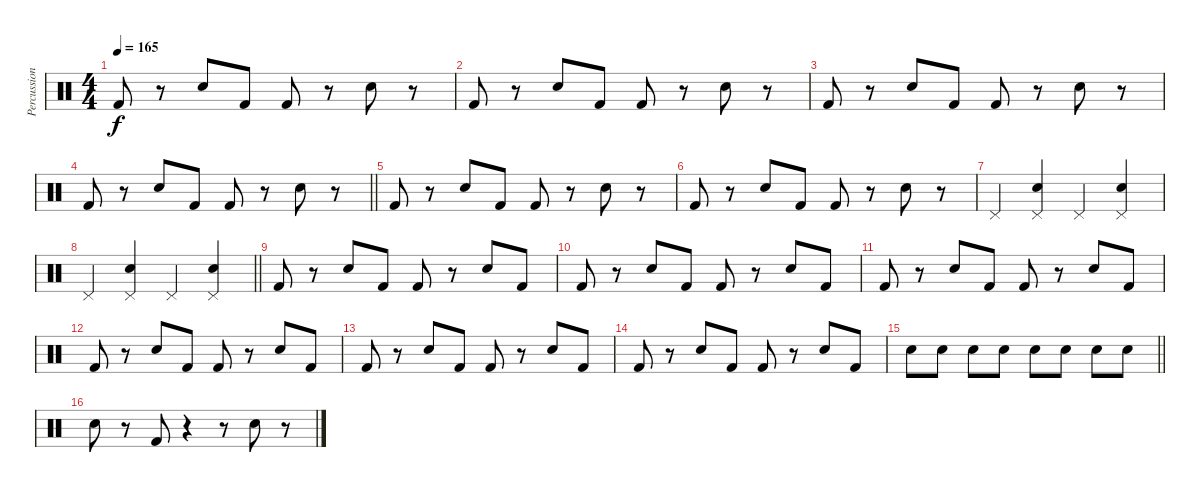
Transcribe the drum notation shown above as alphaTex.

\track ("Percussion" "Percussion") {instrument percussion}
\staff {score}
\articulation defaults
\ts (4 4)
\tempo 165
\clef neutral
\ks c "Kick (hit) 2".8{dy f}
r.8 "Snare (hit) 2".8 "Kick (hit) 2".8 "Kick (hit) 2".8 r.8 "Snare (hit) 2".8 r.8 |
"Kick (hit) 2".8 r.8 "Snare (hit) 2".8 "Kick (hit) 2".8 "Kick (hit) 2".8 r.8 "Snare (hit) 2".8 r.8 |
"Kick (hit) 2".8 r.8 "Snare (hit) 2".8 "Kick (hit) 2".8 "Kick (hit) 2".8 r.8 "Snare (hit) 2".8 r.8 |
\barLineRight lightlight "Kick (hit) 2".8
r.8 "Snare (hit) 2".8 "Kick (hit) 2".8 "Kick (hit) 2".8 r.8 "Snare (hit) 2".8 r.8 |
"Kick (hit) 2".8 r.8 "Snare (hit) 2".8 "Kick (hit) 2".8 "Kick (hit) 2".8 r.8 "Snare (hit) 2".8 r.8 |
"Kick (hit) 2".8 r.8 "Snare (hit) 2".8 "Kick (hit) 2".8 "Kick (hit) 2".8 r.8 "Snare (hit) 2".8 r.8 |
"Pedal Hi-Hat (hit)".4 ("Pedal Hi-Hat (hit)" "Snare (hit) 2").4 "Pedal Hi-Hat (hit)".4 ("Pedal Hi-Hat (hit)" "Snare (hit) 2").4 |
\barLineRight lightlight "Pedal Hi-Hat (hit)".4
("Pedal Hi-Hat (hit)" "Snare (hit) 2").4 "Pedal Hi-Hat (hit)".4 ("Pedal Hi-Hat (hit)" "Snare (hit) 2").4 |
"Kick (hit) 2".8 r.8 "Snare (hit) 2".8 "Kick (hit) 2".8 "Kick (hit) 2".8 r.8 "Snare (hit) 2".8 "Kick (hit) 2".8 |
"Kick (hit) 2".8 r.8 "Snare (hit) 2".8 "Kick (hit) 2".8 "Kick (hit) 2".8 r.8 "Snare (hit) 2".8 "Kick (hit) 2".8 |
"Kick (hit) 2".8 r.8 "Snare (hit) 2".8 "Kick (hit) 2".8 "Kick (hit) 2".8 r.8 "Snare (hit) 2".8 "Kick (hit) 2".8 |
"Kick (hit) 2".8 r.8 "Snare (hit) 2".8 "Kick (hit) 2".8 "Kick (hit) 2".8 r.8 "Snare (hit) 2".8 "Kick (hit) 2".8 |
"Kick (hit) 2".8 r.8 "Snare (hit) 2".8 "Kick (hit) 2".8 "Kick (hit) 2".8 r.8 "Snare (hit) 2".8 "Kick (hit) 2".8 |
"Kick (hit) 2".8 r.8 "Snare (hit) 2".8 "Kick (hit) 2".8 "Kick (hit) 2".8 r.8 "Snare (hit) 2".8 "Kick (hit) 2".8 |
\barLineRight lightlight "Snare (hit) 2".8 "Snare (hit) 2".8 "Snare (hit) 2".8 "Snare (hit) 2".8 "Snare (hit) 2".8 "Snare (hit) 2".8 "Snare (hit) 2".8 "Snare (hit) 2".8
|
"Snare (hit) 2".8 r.8 "Kick (hit) 2".8 r.4 r.8 "Snare (hit) 2".8 r.8
